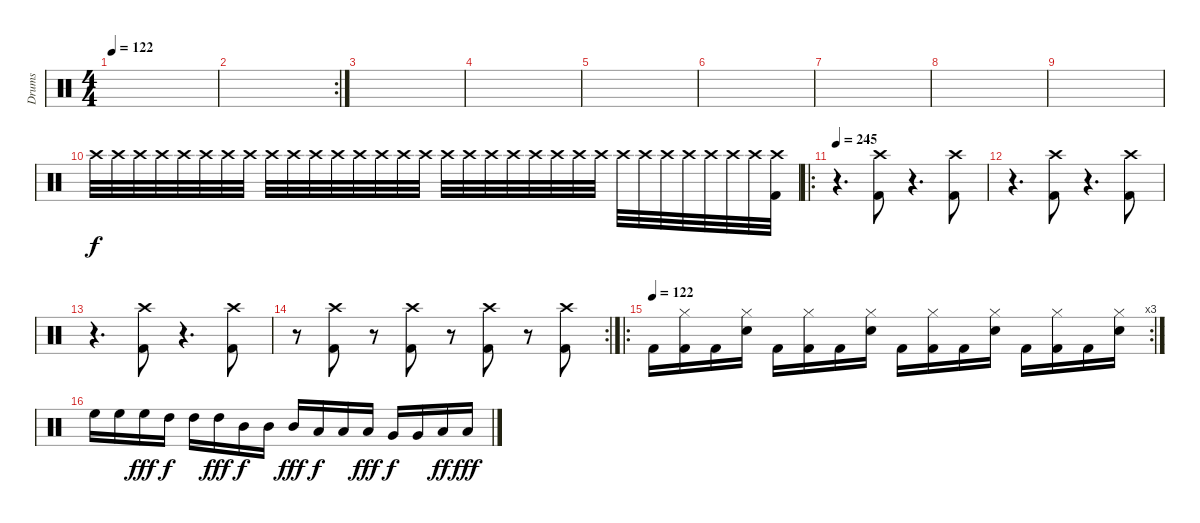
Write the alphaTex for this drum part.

\track ("Drums" "Drums") {instrument percussion}
\staff {score}
\articulation defaults
\ts (4 4)
\tempo 122
\clef neutral
\ks c
|
\rc 2
|
|
|
|
|
|
|
|
"Crash high (hit)".32 "Crash high (hit)".32 "Crash high (hit)".32 "Crash high (hit)".32 "Crash high (hit)".32 "Crash high (hit)".32 "Crash high (hit)".32 "Crash high (hit)".32 "Crash high (hit)".32 "Crash high (hit)".32 "Crash high (hit)".32 "Crash high (hit)".32 "Crash high (hit)".32 "Crash high (hit)".32 "Crash high (hit)".32 "Crash high (hit)".32 "Crash high (hit)".32 "Crash high (hit)".32 "Crash high (hit)".32 "Crash high (hit)".32 "Crash high (hit)".32 "Crash high (hit)".32 "Crash high (hit)".32 "Crash high (hit)".32 "Crash high (hit)".32 "Crash high (hit)".32 "Crash high (hit)".32 "Crash high (hit)".32 "Crash high (hit)".32 "Crash high (hit)".32 "Crash high (hit)".32 ("Crash high (hit)" "Kick (hit) 2").32 |
\ro
\tempo 245
r.4{d} ("Crash high (hit)" "Kick (hit) 2").8 r.4{d} ("Crash high (hit)" "Kick (hit) 2").8 |
r.4{d} ("Crash high (hit)" "Kick (hit) 2").8 r.4{d} ("Crash high (hit)" "Kick (hit) 2").8 |
r.4{d} ("Crash high (hit)" "Kick (hit) 2").8 r.4{d} ("Crash high (hit)" "Kick (hit) 2").8 |
\rc 2
r.8 ("Crash high (hit)" "Kick (hit) 2").8 r.8 ("Crash high (hit)" "Kick (hit) 2").8 r.8 ("Crash high (hit)" "Kick (hit) 2").8 r.8 ("Crash high (hit)" "Kick (hit) 2").8 |
\ro
\rc 3
\tempo (122)
"Kick (hit) 2".16 ("Hi-Hat (closed)" "Kick (hit) 2").16 "Kick (hit) 2".16 ("Hi-Hat (closed)" "Snare (hit) 2").16 "Kick (hit) 2".16 ("Hi-Hat (closed)" "Kick (hit) 2").16 "Kick (hit) 2".16 ("Hi-Hat (closed)" "Snare (hit) 2").16 "Kick (hit) 2".16 ("Hi-Hat (closed)" "Kick (hit) 2").16 "Kick (hit) 2".16 ("Hi-Hat (closed)" "Snare (hit) 2").16 "Kick (hit) 2".16 ("Hi-Hat (closed)" "Kick (hit) 2").16 "Kick (hit) 2".16 ("Hi-Hat (closed)" "Snare (hit) 2").16 |
"High Floor Tom (hit)".16 "High Floor Tom (hit)".16 "High Floor Tom (hit)".16{dy fff} "High Tom (hit)".16{dy f} "High Tom (hit)".16 "High Tom (hit)".16{dy fff} "Mid Tom (hit)".16{dy f} "Mid Tom (hit)".16 "Mid Tom (hit)".16{dy fff} "Low Tom (hit)".16{dy f} "Low Tom (hit)".16 "Low Tom (hit)".16{dy fff} "Very Low Tom (hit)".16{dy f} "Very Low Tom (hit)".16 "Low Floor Tom (hit)".16{dy ff} "Low Floor Tom (hit)".16{dy fff}
